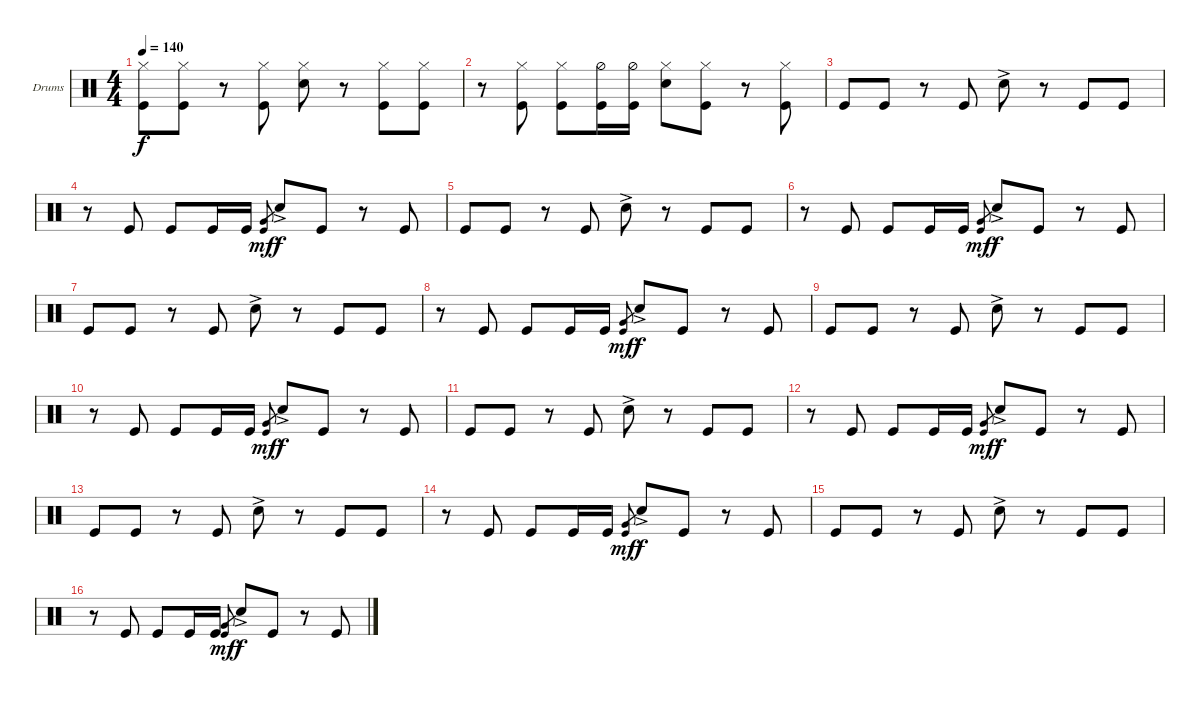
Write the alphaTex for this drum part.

\defaultSystemsLayout 4
\bracketExtendMode groupsimilarinstruments
\firstSystemTrackNameOrientation horizontal
\otherSystemsTrackNameOrientation horizontal
\track ("Drumkit" "Drums") {instrument percussion}
\staff {score}
\articulation defaults
\ts (4 4)
\tempo 140
\clef neutral
\ks c
("Hi-Hat (closed)" "Kick (hit)").8{dy f} ("Hi-Hat (closed)" "Kick (hit)").8 r.8 ("Hi-Hat (closed)" "Kick (hit)").8 ("Hi-Hat (closed)" "Snare (hit) 2").8 r.8 ("Hi-Hat (closed)" "Kick (hit)").8 ("Hi-Hat (closed)" "Kick (hit)").8 |
r.8 ("Hi-Hat (closed)" "Kick (hit)").8 ("Hi-Hat (closed)" "Kick (hit)").8 ("Hi-Hat (half)" "Kick (hit)").16 ("Hi-Hat (half)" "Kick (hit)").16 ("Hi-Hat (closed)" "Snare (hit) 2").8 ("Hi-Hat (closed)" "Kick (hit)").8 r.8 ("Hi-Hat (closed)" "Kick (hit)").8 |
"Kick (hit)".8 "Kick (hit)".8 r.8 "Kick (hit)".8 "Snare (hit) 2"{ac}.8 r.8 "Kick (hit)".8 "Kick (hit)".8 |
r.8 "Kick (hit)".8 "Kick (hit)".8 "Kick (hit)".16 "Kick (hit)".16 ("Very Low Tom (hit)" "Kick (hit)").8{gr dy mf} "Snare (hit) 2"{ac}.8{dy f} "Kick (hit)".8 r.8 "Kick (hit)".8 |
"Kick (hit)".8 "Kick (hit)".8 r.8 "Kick (hit)".8 "Snare (hit) 2"{ac}.8 r.8 "Kick (hit)".8 "Kick (hit)".8 |
r.8 "Kick (hit)".8 "Kick (hit)".8 "Kick (hit)".16 "Kick (hit)".16 ("Very Low Tom (hit)" "Kick (hit)").8{gr dy mf} "Snare (hit) 2"{ac}.8{dy f} "Kick (hit)".8 r.8 "Kick (hit)".8 |
"Kick (hit)".8 "Kick (hit)".8 r.8 "Kick (hit)".8 "Snare (hit) 2"{ac}.8 r.8 "Kick (hit)".8 "Kick (hit)".8 |
r.8 "Kick (hit)".8 "Kick (hit)".8 "Kick (hit)".16 "Kick (hit)".16 ("Very Low Tom (hit)" "Kick (hit)").8{gr dy mf} "Snare (hit) 2"{ac}.8{dy f} "Kick (hit)".8 r.8 "Kick (hit)".8 |
"Kick (hit)".8 "Kick (hit)".8 r.8 "Kick (hit)".8 "Snare (hit) 2"{ac}.8 r.8 "Kick (hit)".8 "Kick (hit)".8 |
r.8 "Kick (hit)".8 "Kick (hit)".8 "Kick (hit)".16 "Kick (hit)".16 ("Very Low Tom (hit)" "Kick (hit)").8{gr dy mf} "Snare (hit) 2"{ac}.8{dy f} "Kick (hit)".8 r.8 "Kick (hit)".8 |
"Kick (hit)".8 "Kick (hit)".8 r.8 "Kick (hit)".8 "Snare (hit) 2"{ac}.8 r.8 "Kick (hit)".8 "Kick (hit)".8 |
r.8 "Kick (hit)".8 "Kick (hit)".8 "Kick (hit)".16 "Kick (hit)".16 ("Very Low Tom (hit)" "Kick (hit)").8{gr dy mf} "Snare (hit) 2"{ac}.8{dy f} "Kick (hit)".8 r.8 "Kick (hit)".8 |
"Kick (hit)".8 "Kick (hit)".8 r.8 "Kick (hit)".8 "Snare (hit) 2"{ac}.8 r.8 "Kick (hit)".8 "Kick (hit)".8 |
r.8 "Kick (hit)".8 "Kick (hit)".8 "Kick (hit)".16 "Kick (hit)".16 ("Very Low Tom (hit)" "Kick (hit)").8{gr dy mf} "Snare (hit) 2"{ac}.8{dy f} "Kick (hit)".8 r.8 "Kick (hit)".8 |
"Kick (hit)".8 "Kick (hit)".8 r.8 "Kick (hit)".8 "Snare (hit) 2"{ac}.8 r.8 "Kick (hit)".8 "Kick (hit)".8 |
r.8 "Kick (hit)".8 "Kick (hit)".8 "Kick (hit)".16 "Kick (hit)".16 ("Very Low Tom (hit)" "Kick (hit)").8{gr dy mf} "Snare (hit) 2"{ac}.8{dy f} "Kick (hit)".8 r.8 "Kick (hit)".8
